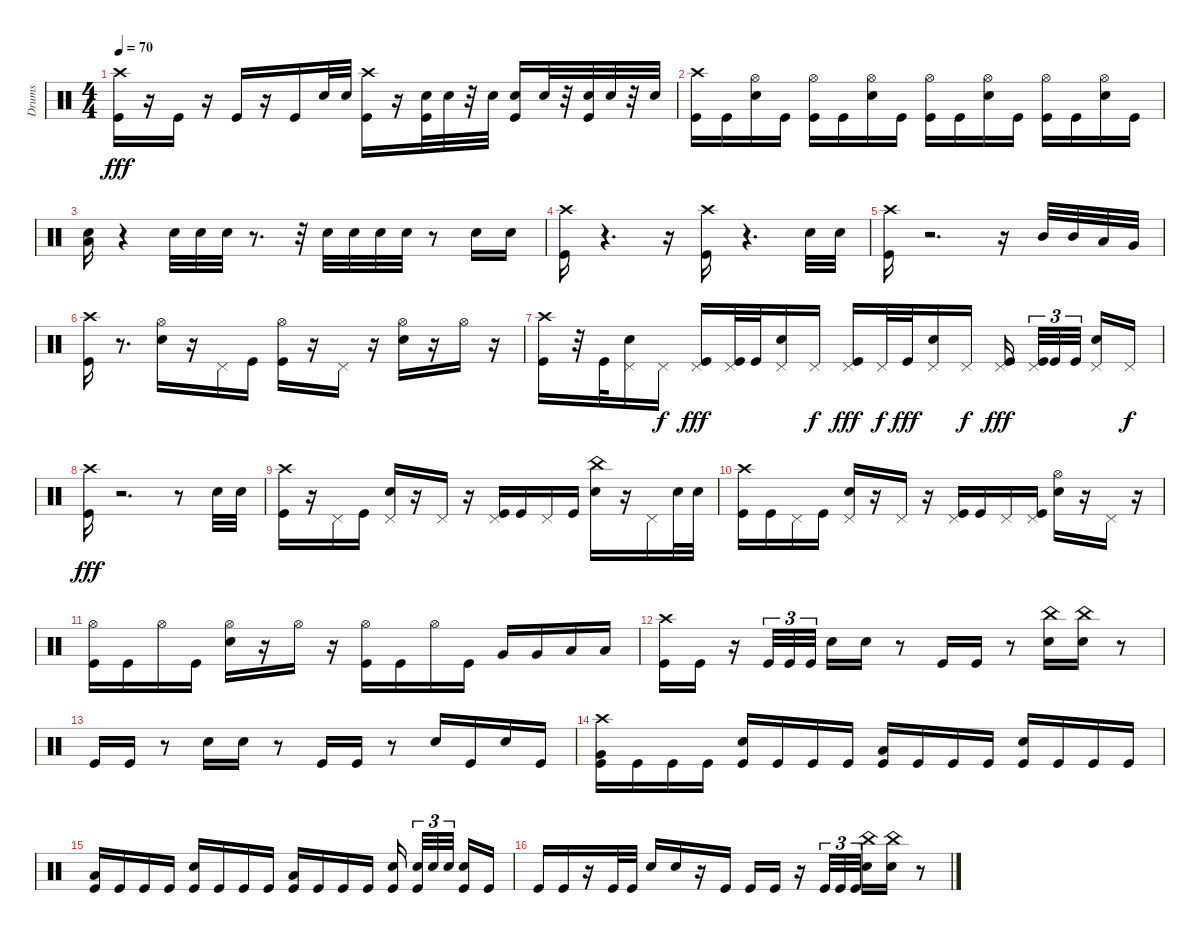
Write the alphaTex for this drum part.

\track ("Drums" "Drums") {instrument percussion}
\staff {score}
\articulation defaults
\ts (4 4)
\tempo 70
\clef neutral
\ks c
("Crash high (hit)" "Kick (hit)").16{dy fff} r.16 "Kick (hit)".16 r.16 "Kick (hit)".16 r.16 "Kick (hit)".16 "Snare (hit) 2".32 "Snare (hit) 2".32 ("Crash high (hit)" "Kick (hit)").16 r.16 ("Snare (hit) 2" "Kick (hit)").32 "Snare (hit) 2".32 r.32 "Snare (hit) 2".32 ("Snare (hit) 2" "Kick (hit)").16 "Snare (hit) 2".32 r.32 ("Snare (hit) 2" "Kick (hit)").32 "Snare (hit) 2".32 r.32 "Snare (hit) 2".32 |
("Crash high (hit)" "Kick (hit)").16 "Kick (hit)".16 ("Hi-Hat (open)" "Snare (hit) 2").16 "Kick (hit)".16 ("Hi-Hat (open)" "Kick (hit)").16 "Kick (hit)".16 ("Hi-Hat (open)" "Snare (hit) 2").16 "Kick (hit)".16 ("Hi-Hat (open)" "Kick (hit)").16 "Kick (hit)".16 ("Hi-Hat (open)" "Snare (hit) 2").16 "Kick (hit)".16 ("Hi-Hat (open)" "Kick (hit)").16 "Kick (hit)".16 ("Hi-Hat (open)" "Snare (hit) 2").16 "Kick (hit)".16 |
("Low Floor Tom (hit)" "Snare (hit) 2").16 r.4 "Snare (hit) 2".32 "Snare (hit) 2".32 "Snare (hit) 2".32 r.8{d} r.32 "Snare (hit) 2".32 "Snare (hit) 2".32 "Snare (hit) 2".32 "Snare (hit) 2".32 r.8 "Snare (hit) 2".16 "Snare (hit) 2".16 |
("Crash high (hit)" "Kick (hit)").16 r.4{d} r.16 ("Crash high (hit)" "Kick (hit)").16 r.4{d} "Snare (hit) 2".32 "Snare (hit) 2".32 |
("Crash high (hit)" "Kick (hit)").16 r.2{d} r.16 "Mid Tom (hit)".32 "Mid Tom (hit)".32 "Low Tom (hit)".32 "Very Low Tom (hit)".32 |
("Crash high (hit)" "Kick (hit)").16 r.8{d} ("Snare (hit) 2" "Hi-Hat (open)").16 r.16 "Pedal Hi-Hat (hit)".16 "Kick (hit)".16 ("Kick (hit)" "Hi-Hat (open)").16 r.16 "Pedal Hi-Hat (hit)".16 r.16 ("Snare (hit) 2" "Hi-Hat (open)").16 r.16 "Hi-Hat (open)".16 r.16 |
("Crash high (hit)" "Kick (hit)").16 r.32 "Kick (hit)".32 ("Pedal Hi-Hat (hit)" "Snare (hit) 2").16 "Pedal Hi-Hat (hit)".16{dy f} ("Pedal Hi-Hat (hit)" "Kick (hit)").16{dy fff} ("Pedal Hi-Hat (hit)" "Kick (hit)").32 "Kick (hit)".32 ("Pedal Hi-Hat (hit)" "Snare (hit) 2").16 "Pedal Hi-Hat (hit)".16{dy f} ("Pedal Hi-Hat (hit)" "Kick (hit)").16{dy fff} "Pedal Hi-Hat (hit)".32{dy f} "Kick (hit)".32{dy fff} ("Pedal Hi-Hat (hit)" "Snare (hit) 2").16 "Pedal Hi-Hat (hit)".16{dy f} ("Pedal Hi-Hat (hit)" "Kick (hit)").16{dy fff beam splitsecondary} ("Kick (hit)" "Pedal Hi-Hat (hit)").32{tu (3 2)} "Kick (hit)".32{tu (3 2)} "Kick (hit)".32{tu (3 2) beam splitsecondary} ("Pedal Hi-Hat (hit)" "Snare (hit) 2").16 "Pedal Hi-Hat (hit)".16{dy f} |
("Kick (hit)" "Crash high (hit)").16{dy fff} r.2{d} r.8 "Snare (hit) 2".32 "Snare (hit) 2".32 |
("Crash high (hit)" "Kick (hit)").16 r.16 "Pedal Hi-Hat (hit)".16 "Kick (hit)".16 ("Pedal Hi-Hat (hit)" "Snare (hit) 2").16 r.16 "Pedal Hi-Hat (hit)".16 r.16 ("Kick (hit)" "Pedal Hi-Hat (hit)").16 "Kick (hit)".16 "Pedal Hi-Hat (hit)".16 "Kick (hit)".16 ("China (hit)" "Snare (hit) 2").16 r.16 "Pedal Hi-Hat (hit)".16 "Snare (hit) 2".32 "Snare (hit) 2".32 |
("Crash high (hit)" "Kick (hit)").16 "Kick (hit)".16 "Pedal Hi-Hat (hit)".16 "Kick (hit)".16 ("Pedal Hi-Hat (hit)" "Snare (hit) 2").16 r.16 "Pedal Hi-Hat (hit)".16 r.16 ("Pedal Hi-Hat (hit)" "Kick (hit)").16 "Kick (hit)".16 "Pedal Hi-Hat (hit)".16 ("Pedal Hi-Hat (hit)" "Kick (hit)").16 ("Hi-Hat (open)" "Snare (hit) 2").16 r.16 "Pedal Hi-Hat (hit)".16 r.16 |
("Hi-Hat (open)" "Kick (hit)").16 "Kick (hit)".16 "Hi-Hat (open)".16 "Kick (hit)".16 ("Hi-Hat (open)" "Snare (hit) 2").16 r.16 "Hi-Hat (open)".16 r.16 ("Hi-Hat (open)" "Kick (hit)").16 "Kick (hit)".16 "Hi-Hat (open)".16 "Kick (hit)".16 "Very Low Tom (hit)".16 "Very Low Tom (hit)".16 "Low Floor Tom (hit)".16 "Low Floor Tom (hit)".16 |
("Crash high (hit)" "Kick (hit)").16 "Kick (hit)".16 r.16 "Kick (hit)".32{tu (3 2)} "Kick (hit)".32{tu (3 2)} "Kick (hit)".32{tu (3 2)} "Snare (hit) 2".16 "Snare (hit) 2".16 r.8 "Kick (hit)".16 "Kick (hit)".16 r.8 ("China (hit)" "Snare (hit) 2").16 ("China (hit)" "Snare (hit) 2").16 r.8 |
"Kick (hit)".16 "Kick (hit)".16 r.8 "Snare (hit) 2".16 "Snare (hit) 2".16 r.8 "Kick (hit)".16 "Kick (hit)".16 r.8 "Snare (hit) 2".16 "Kick (hit)".16 "Snare (hit) 2".16 "Kick (hit)".16 |
("Very Low Tom (hit)" "Crash high (hit)" "Kick (hit)").16 "Kick (hit)".16 "Kick (hit)".16 "Kick (hit)".16 ("Snare (hit) 2" "Kick (hit)").16 "Kick (hit)".16 "Kick (hit)".16 "Kick (hit)".16 ("Low Floor Tom (hit)" "Kick (hit)").16 "Kick (hit)".16 "Kick (hit)".16 "Kick (hit)".16 ("Snare (hit) 2" "Kick (hit)").16 "Kick (hit)".16 "Kick (hit)".16 "Kick (hit)".16 |
("Low Floor Tom (hit)" "Kick (hit)").16 "Kick (hit)".16 "Kick (hit)".16 "Kick (hit)".16 ("Snare (hit) 2" "Kick (hit)").16 "Kick (hit)".16 "Kick (hit)".16 "Kick (hit)".16 ("Low Floor Tom (hit)" "Kick (hit)").16 "Kick (hit)".16 "Kick (hit)".16 "Kick (hit)".16 ("Snare (hit) 2" "Kick (hit)").16{beam splitsecondary} ("Snare (hit) 2" "Kick (hit)").32{tu (3 2)} "Snare (hit) 2".32{tu (3 2)} "Snare (hit) 2".32{tu (3 2) beam splitsecondary} ("Snare (hit) 2" "Kick (hit)").16 "Kick (hit)".16 |
"Kick (hit)".16 "Kick (hit)".16 r.16 "Kick (hit)".32 "Kick (hit)".32 "Snare (hit) 2".16 "Snare (hit) 2".16 r.16 "Kick (hit)".16 "Kick (hit)".16 "Kick (hit)".16 r.16 "Kick (hit)".32{tu (3 2)} "Kick (hit)".32{tu (3 2)} "Kick (hit)".32{tu (3 2)} ("China (hit)" "Snare (hit) 2").16 ("China (hit)" "Snare (hit) 2").16 r.8
